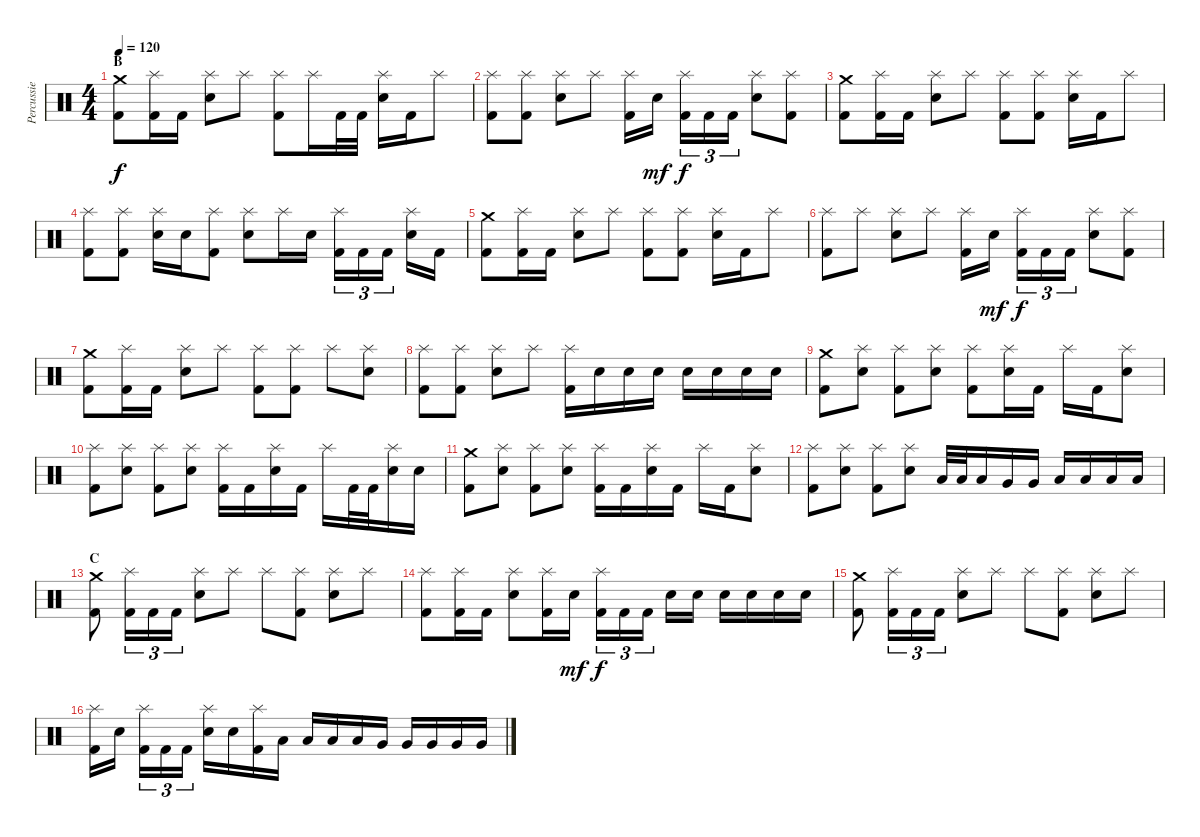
\track ("Percussie" "Percussie") {instrument percussion}
\staff {score}
\articulation defaults
\ts (4 4)
\section ("" "B")
\tempo 120
\clef neutral
\ks c
("Crash medium (hit)" "Kick (hit) 2").8{dy f} ("Splash (hit)" "Kick (hit) 2").16 "Kick (hit) 2".16 ("Splash (hit)" "Electric Snare (hit)").8 "Splash (hit)".8 ("Splash (hit)" "Kick (hit) 2").8 "Splash (hit)".16 "Kick (hit) 2".32 "Kick (hit) 2".32 ("Splash (hit)" "Electric Snare (hit)").16 "Kick (hit) 2".16 "Splash (hit)".8 |
("Splash (hit)" "Kick (hit) 2").8 ("Splash (hit)" "Kick (hit) 2").8 ("Splash (hit)" "Electric Snare (hit)").8 "Splash (hit)".8 ("Splash (hit)" "Kick (hit) 2").16 "Electric Snare (hit)".16{dy mf} ("Splash (hit)" "Kick (hit) 2").16{tu (3 2) dy f} "Kick (hit) 2".16{tu (3 2)} "Kick (hit) 2".16{tu (3 2)} ("Splash (hit)" "Electric Snare (hit)").8 ("Splash (hit)" "Kick (hit) 2").8 |
("Crash medium (hit)" "Kick (hit) 2").8 ("Splash (hit)" "Kick (hit) 2").16 "Kick (hit) 2".16 ("Splash (hit)" "Electric Snare (hit)").8 "Splash (hit)".8 ("Splash (hit)" "Kick (hit) 2").8 ("Splash (hit)" "Kick (hit) 2").8 ("Splash (hit)" "Electric Snare (hit)").16 "Kick (hit) 2".16 "Splash (hit)".8 |
("Splash (hit)" "Kick (hit) 2").8 ("Splash (hit)" "Kick (hit) 2").8 ("Splash (hit)" "Electric Snare (hit)").16 "Electric Snare (hit)".16 ("Splash (hit)" "Kick (hit) 2").8 ("Splash (hit)" "Electric Snare (hit)").8 "Splash (hit)".16 "Electric Snare (hit)".16 ("Splash (hit)" "Kick (hit) 2").16{tu (3 2)} "Kick (hit) 2".16{tu (3 2)} "Kick (hit) 2".16{tu (3 2)} ("Splash (hit)" "Electric Snare (hit)").16 "Kick (hit) 2".16 |
("Crash medium (hit)" "Kick (hit) 2").8 ("Splash (hit)" "Kick (hit) 2").16 "Kick (hit) 2".16 ("Splash (hit)" "Electric Snare (hit)").8 "Splash (hit)".8 ("Splash (hit)" "Kick (hit) 2").8 ("Splash (hit)" "Kick (hit) 2").8 ("Splash (hit)" "Electric Snare (hit)").16 "Kick (hit) 2".16 "Splash (hit)".8 |
("Splash (hit)" "Kick (hit) 2").8 "Splash (hit)".8 ("Splash (hit)" "Electric Snare (hit)").8 "Splash (hit)".8 ("Splash (hit)" "Kick (hit) 2").16 "Electric Snare (hit)".16{dy mf} ("Splash (hit)" "Kick (hit) 2").16{tu (3 2) dy f} "Kick (hit) 2".16{tu (3 2)} "Kick (hit) 2".16{tu (3 2)} ("Splash (hit)" "Electric Snare (hit)").8 ("Splash (hit)" "Kick (hit) 2").8 |
("Crash medium (hit)" "Kick (hit) 2").8 ("Splash (hit)" "Kick (hit) 2").16 "Kick (hit) 2".16 ("Splash (hit)" "Electric Snare (hit)").8 "Splash (hit)".8 ("Splash (hit)" "Kick (hit) 2").8 ("Splash (hit)" "Kick (hit) 2").8 "Splash (hit)".8 ("Splash (hit)" "Electric Snare (hit)").8 |
("Splash (hit)" "Kick (hit) 2").8 ("Splash (hit)" "Kick (hit) 2").8 ("Splash (hit)" "Electric Snare (hit)").8 "Splash (hit)".8 ("Splash (hit)" "Kick (hit) 2").16 "Electric Snare (hit)".16 "Electric Snare (hit)".16 "Electric Snare (hit)".16 "Electric Snare (hit)".16 "Electric Snare (hit)".16 "Electric Snare (hit)".16 "Electric Snare (hit)".16 |
("Crash medium (hit)" "Kick (hit) 2").8 ("Splash (hit)" "Electric Snare (hit)").8 ("Splash (hit)" "Kick (hit) 2").8 ("Splash (hit)" "Electric Snare (hit)").8 ("Splash (hit)" "Kick (hit) 2").8 ("Splash (hit)" "Electric Snare (hit)").16 "Kick (hit) 2".16 "Splash (hit)".16 "Kick (hit) 2".16 ("Splash (hit)" "Electric Snare (hit)").8 |
("Splash (hit)" "Kick (hit) 2").8 ("Splash (hit)" "Electric Snare (hit)").8 ("Splash (hit)" "Kick (hit) 2").8 ("Splash (hit)" "Electric Snare (hit)").8 ("Splash (hit)" "Kick (hit) 2").16 "Kick (hit) 2".16 ("Splash (hit)" "Electric Snare (hit)").16 "Kick (hit) 2".16 "Splash (hit)".16 "Kick (hit) 2".32 "Kick (hit) 2".32 ("Splash (hit)" "Electric Snare (hit)").16 "Electric Snare (hit)".16 |
("Crash medium (hit)" "Kick (hit) 2").8 ("Splash (hit)" "Electric Snare (hit)").8 ("Splash (hit)" "Kick (hit) 2").8 ("Splash (hit)" "Electric Snare (hit)").8 ("Splash (hit)" "Kick (hit) 2").16 "Kick (hit) 2".16 ("Splash (hit)" "Electric Snare (hit)").16 "Kick (hit) 2".16 "Splash (hit)".16 "Kick (hit) 2".16 ("Splash (hit)" "Electric Snare (hit)").8 |
("Splash (hit)" "Kick (hit) 2").8 ("Splash (hit)" "Electric Snare (hit)").8 ("Splash (hit)" "Kick (hit) 2").8 ("Splash (hit)" "Electric Snare (hit)").8 "Low Floor Tom (hit)".32 "Low Floor Tom (hit)".32 "Low Floor Tom (hit)".16 "Very Low Tom (hit)".16 "Very Low Tom (hit)".16 "Low Floor Tom (hit)".16 "Low Floor Tom (hit)".16 "Low Floor Tom (hit)".16 "Low Floor Tom (hit)".16 |
\section ("" "C")
("Crash medium (hit)" "Kick (hit) 2").8 ("Splash (hit)" "Kick (hit) 2").16{tu (3 2)} "Kick (hit) 2".16{tu (3 2)} "Kick (hit) 2".16{tu (3 2)} ("Splash (hit)" "Electric Snare (hit)").8 "Splash (hit)".8 "Splash (hit)".8 ("Splash (hit)" "Kick (hit) 2").8 ("Splash (hit)" "Electric Snare (hit)").8 "Splash (hit)".8 |
("Splash (hit)" "Kick (hit) 2").8 ("Splash (hit)" "Kick (hit) 2").16 "Kick (hit) 2".16 ("Splash (hit)" "Electric Snare (hit)").8 ("Splash (hit)" "Kick (hit) 2").16 "Electric Snare (hit)".16{dy mf} ("Splash (hit)" "Kick (hit) 2").16{tu (3 2) dy f} "Kick (hit) 2".16{tu (3 2)} "Kick (hit) 2".16{tu (3 2)} "Electric Snare (hit)".16 "Electric Snare (hit)".16 "Electric Snare (hit)".16 "Electric Snare (hit)".16 "Electric Snare (hit)".16 "Electric Snare (hit)".16 |
("Crash medium (hit)" "Kick (hit) 2").8 ("Splash (hit)" "Kick (hit) 2").16{tu (3 2)} "Kick (hit) 2".16{tu (3 2)} "Kick (hit) 2".16{tu (3 2)} ("Splash (hit)" "Electric Snare (hit)").8 "Splash (hit)".8 "Splash (hit)".8 ("Splash (hit)" "Kick (hit) 2").8 ("Splash (hit)" "Electric Snare (hit)").8 "Splash (hit)".8 |
("Splash (hit)" "Kick (hit) 2").16 "Electric Snare (hit)".16 ("Splash (hit)" "Kick (hit) 2").16{tu (3 2)} "Kick (hit) 2".16{tu (3 2)} "Kick (hit) 2".16{tu (3 2)} ("Splash (hit)" "Electric Snare (hit)").16 "Electric Snare (hit)".16 ("Splash (hit)" "Kick (hit) 2").16 "Low Tom (hit)".16 "Low Tom (hit)".16 "Low Tom (hit)".16 "Low Tom (hit)".16 "Very Low Tom (hit)".16 "Very Low Tom (hit)".16 "Very Low Tom (hit)".16 "Very Low Tom (hit)".16 "Very Low Tom (hit)".16
